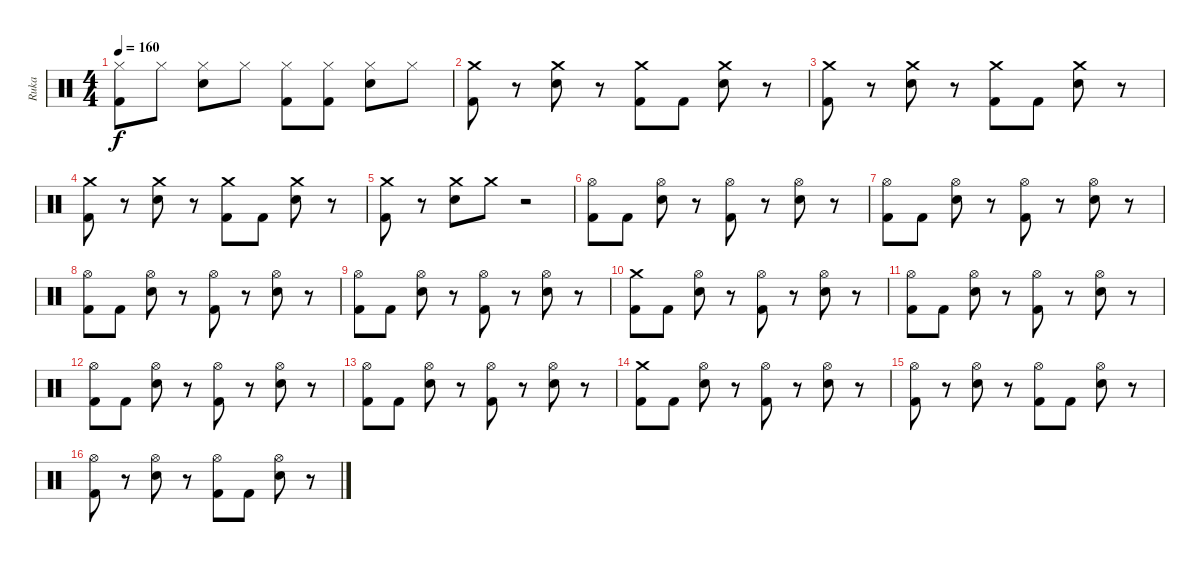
\track ("Ruka" "Ruka") {instrument percussion}
\staff {score}
\articulation defaults
\ts (4 4)
\tempo 160
\clef neutral
\ks c
("Kick (hit) 2" "Hi-Hat (closed)").8{dy f} "Hi-Hat (closed)".8 ("Electric Snare (hit)" "Hi-Hat (closed)").8 "Hi-Hat (closed)".8 ("Kick (hit) 2" "Hi-Hat (closed)").8 ("Kick (hit) 2" "Hi-Hat (closed)").8 ("Electric Snare (hit)" "Hi-Hat (closed)").8 "Hi-Hat (closed)".8 |
("Kick (hit) 2" "Crash medium (hit)").8 r.8 ("Electric Snare (hit)" "Crash medium (hit)").8 r.8 ("Kick (hit) 2" "Crash medium (hit)").8 "Kick (hit) 2".8 ("Electric Snare (hit)" "Crash medium (hit)").8 r.8 |
("Kick (hit) 2" "Crash medium (hit)").8 r.8 ("Electric Snare (hit)" "Crash medium (hit)").8 r.8 ("Kick (hit) 2" "Crash medium (hit)").8 "Kick (hit) 2".8 ("Electric Snare (hit)" "Crash medium (hit)").8 r.8 |
("Kick (hit) 2" "Crash medium (hit)").8 r.8 ("Electric Snare (hit)" "Crash medium (hit)").8 r.8 ("Kick (hit) 2" "Crash medium (hit)").8 "Kick (hit) 2".8 ("Electric Snare (hit)" "Crash medium (hit)").8 r.8 |
("Kick (hit) 2" "Crash medium (hit)").8 r.8 ("Electric Snare (hit)" "Crash medium (hit)").8 "Crash medium (hit)".8 r.2 |
("Kick (hit) 2" "Hi-Hat (open)").8 "Kick (hit) 2".8 ("Electric Snare (hit)" "Hi-Hat (open)").8 r.8 ("Kick (hit) 2" "Hi-Hat (open)").8 r.8 ("Electric Snare (hit)" "Hi-Hat (open)").8 r.8 |
("Kick (hit) 2" "Hi-Hat (open)").8 "Kick (hit) 2".8 ("Electric Snare (hit)" "Hi-Hat (open)").8 r.8 ("Kick (hit) 2" "Hi-Hat (open)").8 r.8 ("Electric Snare (hit)" "Hi-Hat (open)").8 r.8 |
("Kick (hit) 2" "Hi-Hat (open)").8 "Kick (hit) 2".8 ("Electric Snare (hit)" "Hi-Hat (open)").8 r.8 ("Kick (hit) 2" "Hi-Hat (open)").8 r.8 ("Electric Snare (hit)" "Hi-Hat (open)").8 r.8 |
("Kick (hit) 2" "Hi-Hat (open)").8 "Kick (hit) 2".8 ("Electric Snare (hit)" "Hi-Hat (open)").8 r.8 ("Kick (hit) 2" "Hi-Hat (open)").8 r.8 ("Electric Snare (hit)" "Hi-Hat (open)").8 r.8 |
("Kick (hit) 2" "Crash medium (hit)").8 "Kick (hit) 2".8 ("Electric Snare (hit)" "Hi-Hat (open)").8 r.8 ("Kick (hit) 2" "Hi-Hat (open)").8 r.8 ("Electric Snare (hit)" "Hi-Hat (open)").8 r.8 |
("Kick (hit) 2" "Hi-Hat (open)").8 "Kick (hit) 2".8 ("Electric Snare (hit)" "Hi-Hat (open)").8 r.8 ("Kick (hit) 2" "Hi-Hat (open)").8 r.8 ("Electric Snare (hit)" "Hi-Hat (open)").8 r.8 |
("Kick (hit) 2" "Hi-Hat (open)").8 "Kick (hit) 2".8 ("Electric Snare (hit)" "Hi-Hat (open)").8 r.8 ("Kick (hit) 2" "Hi-Hat (open)").8 r.8 ("Electric Snare (hit)" "Hi-Hat (open)").8 r.8 |
("Kick (hit) 2" "Hi-Hat (open)").8 "Kick (hit) 2".8 ("Electric Snare (hit)" "Hi-Hat (open)").8 r.8 ("Kick (hit) 2" "Hi-Hat (open)").8 r.8 ("Electric Snare (hit)" "Hi-Hat (open)").8 r.8 |
("Kick (hit) 2" "Crash medium (hit)").8 "Kick (hit) 2".8 ("Electric Snare (hit)" "Hi-Hat (open)").8 r.8 ("Kick (hit) 2" "Hi-Hat (open)").8 r.8 ("Electric Snare (hit)" "Hi-Hat (open)").8 r.8 |
("Kick (hit) 2" "Hi-Hat (open)").8 r.8 ("Electric Snare (hit)" "Hi-Hat (open)").8 r.8 ("Kick (hit) 2" "Hi-Hat (open)").8 "Kick (hit) 2".8 ("Electric Snare (hit)" "Hi-Hat (open)").8 r.8 |
("Kick (hit) 2" "Hi-Hat (open)").8 r.8 ("Electric Snare (hit)" "Hi-Hat (open)").8 r.8 ("Kick (hit) 2" "Hi-Hat (open)").8 "Kick (hit) 2".8 ("Electric Snare (hit)" "Hi-Hat (open)").8 r.8
